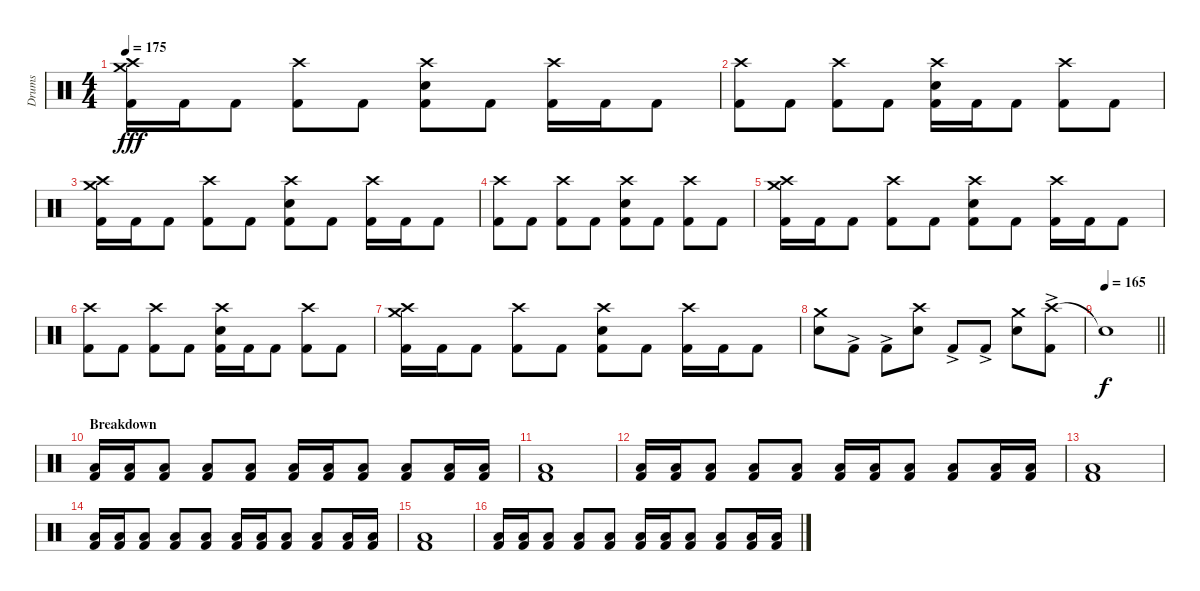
\track ("Drums" "Drums") {instrument percussion}
\staff {score}
\articulation defaults
\ts (4 4)
\tempo 175
\clef neutral
\ks c
("Crash high (hit)" "Crash medium (hit)" "Kick (hit) 2").16{dy fff} "Kick (hit) 2".16 "Kick (hit) 2".8 ("Crash high (hit)" "Kick (hit) 2").8 "Kick (hit) 2".8 ("Crash high (hit)" "Electric Snare (hit)" "Kick (hit) 2").8 "Kick (hit) 2".8 ("Crash high (hit)" "Kick (hit) 2").16 "Kick (hit) 2".16 "Kick (hit) 2".8 |
("Crash high (hit)" "Kick (hit) 2").8 "Kick (hit) 2".8 ("Crash high (hit)" "Kick (hit) 2").8 "Kick (hit) 2".8 ("Crash high (hit)" "Electric Snare (hit)" "Kick (hit) 2").16 "Kick (hit) 2".16 "Kick (hit) 2".8 ("Crash high (hit)" "Kick (hit) 2").8 "Kick (hit) 2".8 |
("Crash high (hit)" "Crash medium (hit)" "Kick (hit) 2").16 "Kick (hit) 2".16 "Kick (hit) 2".8 ("Crash high (hit)" "Kick (hit) 2").8 "Kick (hit) 2".8 ("Crash high (hit)" "Electric Snare (hit)" "Kick (hit) 2").8 "Kick (hit) 2".8 ("Crash high (hit)" "Kick (hit) 2").16 "Kick (hit) 2".16 "Kick (hit) 2".8 |
("Crash high (hit)" "Kick (hit) 2").8 "Kick (hit) 2".8 ("Crash high (hit)" "Kick (hit) 2").8 "Kick (hit) 2".8 ("Crash high (hit)" "Electric Snare (hit)" "Kick (hit) 2").8 "Kick (hit) 2".8 ("Crash high (hit)" "Kick (hit) 2").8 "Kick (hit) 2".8 |
("Crash high (hit)" "Crash medium (hit)" "Kick (hit) 2").16 "Kick (hit) 2".16 "Kick (hit) 2".8 ("Crash high (hit)" "Kick (hit) 2").8 "Kick (hit) 2".8 ("Crash high (hit)" "Electric Snare (hit)" "Kick (hit) 2").8 "Kick (hit) 2".8 ("Crash high (hit)" "Kick (hit) 2").16 "Kick (hit) 2".16 "Kick (hit) 2".8 |
("Crash high (hit)" "Kick (hit) 2").8 "Kick (hit) 2".8 ("Crash high (hit)" "Kick (hit) 2").8 "Kick (hit) 2".8 ("Crash high (hit)" "Electric Snare (hit)" "Kick (hit) 2").16 "Kick (hit) 2".16 "Kick (hit) 2".8 ("Crash high (hit)" "Kick (hit) 2").8 "Kick (hit) 2".8 |
("Crash high (hit)" "Crash medium (hit)" "Kick (hit) 2").16 "Kick (hit) 2".16 "Kick (hit) 2".8 ("Crash high (hit)" "Kick (hit) 2").8 "Kick (hit) 2".8 ("Crash high (hit)" "Electric Snare (hit)" "Kick (hit) 2").8 "Kick (hit) 2".8 ("Crash high (hit)" "Kick (hit) 2").16 "Kick (hit) 2".16 "Kick (hit) 2".8 |
("Crash medium (hit)" "Electric Snare (hit)").8 "Kick (hit) 2"{ac}.8 "Kick (hit) 2"{ac}.8 ("Crash high (hit)" "Electric Snare (hit)").8 "Kick (hit) 2"{ac}.8 "Kick (hit) 2"{ac}.8 ("Crash medium (hit)" "Electric Snare (hit)").8 ("Crash high (hit)" "Kick (hit) 2"{ac}).8 |
\tempo 165
\barLineRight lightlight "Snare (hit)"{t}.1{dy f}
|
\section ("" "Breakdown")
("Low Floor Tom (hit)" "Kick (hit) 2").16 ("Low Floor Tom (hit)" "Kick (hit) 2").16 ("Low Floor Tom (hit)" "Kick (hit) 2").8 ("Low Floor Tom (hit)" "Kick (hit) 2").8 ("Low Floor Tom (hit)" "Kick (hit) 2").8 ("Low Floor Tom (hit)" "Kick (hit) 2").16 ("Low Floor Tom (hit)" "Kick (hit) 2").16 ("Low Floor Tom (hit)" "Kick (hit) 2").8 ("Low Floor Tom (hit)" "Kick (hit) 2").8 ("Low Floor Tom (hit)" "Kick (hit) 2").16 ("Low Floor Tom (hit)" "Kick (hit) 2").16 |
("Low Floor Tom (hit)" "Kick (hit) 2").1 |
("Low Floor Tom (hit)" "Kick (hit) 2").16 ("Low Floor Tom (hit)" "Kick (hit) 2").16 ("Low Floor Tom (hit)" "Kick (hit) 2").8 ("Low Floor Tom (hit)" "Kick (hit) 2").8 ("Low Floor Tom (hit)" "Kick (hit) 2").8 ("Low Floor Tom (hit)" "Kick (hit) 2").16 ("Low Floor Tom (hit)" "Kick (hit) 2").16 ("Low Floor Tom (hit)" "Kick (hit) 2").8 ("Low Floor Tom (hit)" "Kick (hit) 2").8 ("Low Floor Tom (hit)" "Kick (hit) 2").16 ("Low Floor Tom (hit)" "Kick (hit) 2").16 |
("Low Floor Tom (hit)" "Kick (hit) 2").1 |
("Low Floor Tom (hit)" "Kick (hit) 2").16 ("Low Floor Tom (hit)" "Kick (hit) 2").16 ("Low Floor Tom (hit)" "Kick (hit) 2").8 ("Low Floor Tom (hit)" "Kick (hit) 2").8 ("Low Floor Tom (hit)" "Kick (hit) 2").8 ("Low Floor Tom (hit)" "Kick (hit) 2").16 ("Low Floor Tom (hit)" "Kick (hit) 2").16 ("Low Floor Tom (hit)" "Kick (hit) 2").8 ("Low Floor Tom (hit)" "Kick (hit) 2").8 ("Low Floor Tom (hit)" "Kick (hit) 2").16 ("Low Floor Tom (hit)" "Kick (hit) 2").16 |
("Low Floor Tom (hit)" "Kick (hit) 2").1 |
("Low Floor Tom (hit)" "Kick (hit) 2").16 ("Low Floor Tom (hit)" "Kick (hit) 2").16 ("Low Floor Tom (hit)" "Kick (hit) 2").8 ("Low Floor Tom (hit)" "Kick (hit) 2").8 ("Low Floor Tom (hit)" "Kick (hit) 2").8 ("Low Floor Tom (hit)" "Kick (hit) 2").16 ("Low Floor Tom (hit)" "Kick (hit) 2").16 ("Low Floor Tom (hit)" "Kick (hit) 2").8 ("Low Floor Tom (hit)" "Kick (hit) 2").8 ("Low Floor Tom (hit)" "Kick (hit) 2").16 ("Low Floor Tom (hit)" "Kick (hit) 2").16
